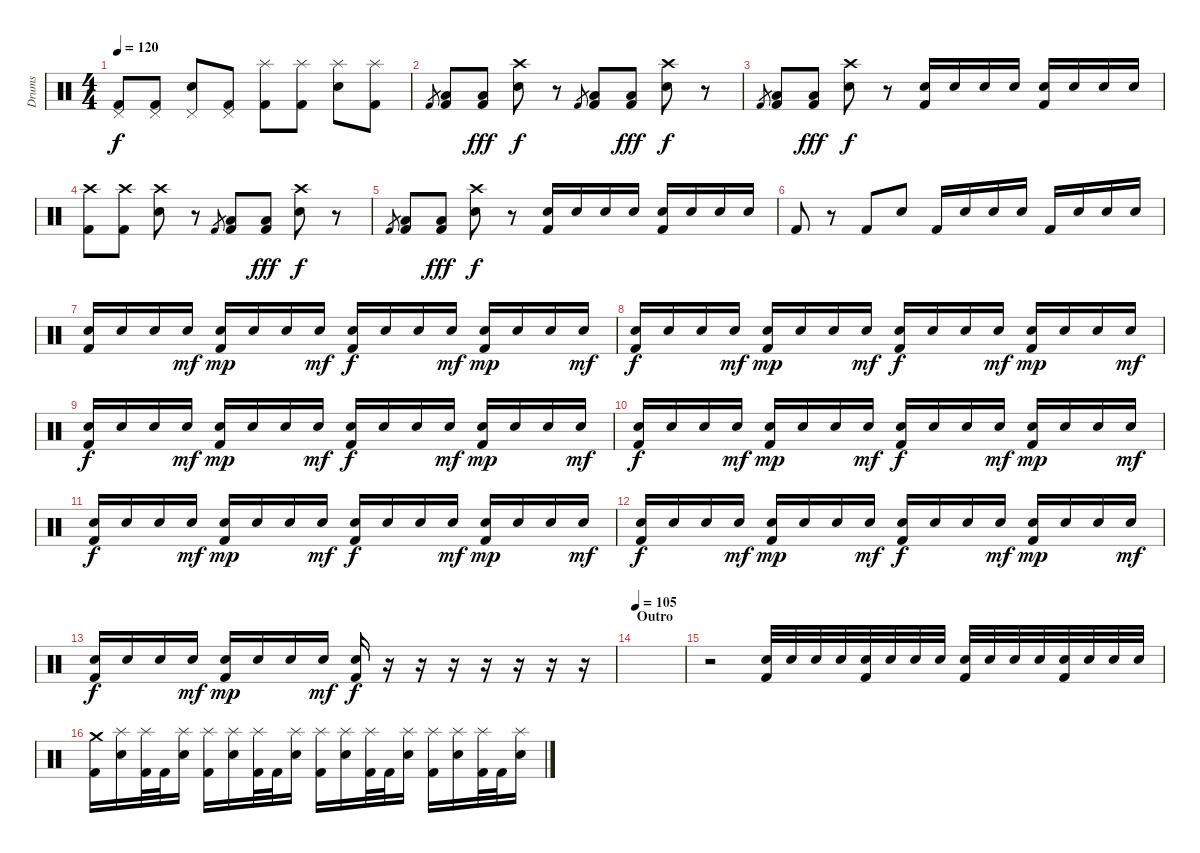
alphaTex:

\track ("Drums" "Drums") {instrument percussion}
\staff {score}
\articulation defaults
\ts (4 4)
\tempo 120
\clef neutral
\ks c
("Pedal Hi-Hat (hit)" "Kick (hit) 2").8{dy f} ("Pedal Hi-Hat (hit)" "Kick (hit) 2").8 ("Pedal Hi-Hat (hit)" "Electric Snare (hit)").8 ("Pedal Hi-Hat (hit)" "Kick (hit) 2").8 ("Splash (hit)" "Kick (hit) 2").8 ("Splash (hit)" "Kick (hit) 2").8 ("Splash (hit)" "Electric Snare (hit)").8 ("Splash (hit)" "Kick (hit) 2").8 |
"Kick (hit) 2".8{gr} ("Low Floor Tom (hit)" "Kick (hit) 2").8 ("Low Floor Tom (hit)" "Kick (hit) 2").8{dy fff} ("Crash high (hit)" "Electric Snare (hit)").8{dy f} r.8 "Kick (hit) 2".8{gr} ("Low Floor Tom (hit)" "Kick (hit) 2").8 ("Low Floor Tom (hit)" "Kick (hit) 2").8{dy fff} ("Crash high (hit)" "Electric Snare (hit)").8{dy f} r.8 |
"Kick (hit) 2".8{gr} ("Low Floor Tom (hit)" "Kick (hit) 2").8 ("Low Floor Tom (hit)" "Kick (hit) 2").8{dy fff} ("Crash high (hit)" "Electric Snare (hit)").8{dy f} r.8 ("Electric Snare (hit)" "Kick (hit) 2").16 "Electric Snare (hit)".16 "Electric Snare (hit)".16 "Electric Snare (hit)".16 ("Electric Snare (hit)" "Kick (hit) 2").16 "Electric Snare (hit)".16 "Electric Snare (hit)".16 "Electric Snare (hit)".16 |
("Crash high (hit)" "Kick (hit) 2").8 ("Crash high (hit)" "Kick (hit) 2").8 ("Crash high (hit)" "Electric Snare (hit)").8 r.8 "Kick (hit) 2".8{gr} ("Low Floor Tom (hit)" "Kick (hit) 2").8 ("Low Floor Tom (hit)" "Kick (hit) 2").8{dy fff} ("Crash high (hit)" "Electric Snare (hit)").8{dy f} r.8 |
"Kick (hit) 2".8{gr} ("Low Floor Tom (hit)" "Kick (hit) 2").8 ("Low Floor Tom (hit)" "Kick (hit) 2").8{dy fff} ("Crash high (hit)" "Electric Snare (hit)").8{dy f} r.8 ("Electric Snare (hit)" "Kick (hit) 2").16 "Electric Snare (hit)".16 "Electric Snare (hit)".16 "Electric Snare (hit)".16 ("Electric Snare (hit)" "Kick (hit) 2").16 "Electric Snare (hit)".16 "Electric Snare (hit)".16 "Electric Snare (hit)".16 |
"Kick (hit) 2".8 r.8 "Kick (hit) 2".8 "Electric Snare (hit)".8 "Kick (hit) 2".16 "Electric Snare (hit)".16 "Electric Snare (hit)".16 "Electric Snare (hit)".16 "Kick (hit) 2".16 "Electric Snare (hit)".16 "Electric Snare (hit)".16 "Electric Snare (hit)".16 |
("Electric Snare (hit)" "Kick (hit) 2").16 "Electric Snare (hit)".16 "Electric Snare (hit)".16 "Electric Snare (hit)".16{dy mf} ("Electric Snare (hit)" "Kick (hit) 2").16{dy mp} "Electric Snare (hit)".16 "Electric Snare (hit)".16 "Electric Snare (hit)".16{dy mf} ("Electric Snare (hit)" "Kick (hit) 2").16{dy f} "Electric Snare (hit)".16 "Electric Snare (hit)".16 "Electric Snare (hit)".16{dy mf} ("Electric Snare (hit)" "Kick (hit) 2").16{dy mp} "Electric Snare (hit)".16 "Electric Snare (hit)".16 "Electric Snare (hit)".16{dy mf} |
("Electric Snare (hit)" "Kick (hit) 2").16{dy f} "Electric Snare (hit)".16 "Electric Snare (hit)".16 "Electric Snare (hit)".16{dy mf} ("Electric Snare (hit)" "Kick (hit) 2").16{dy mp} "Electric Snare (hit)".16 "Electric Snare (hit)".16 "Electric Snare (hit)".16{dy mf} ("Electric Snare (hit)" "Kick (hit) 2").16{dy f} "Electric Snare (hit)".16 "Electric Snare (hit)".16 "Electric Snare (hit)".16{dy mf} ("Electric Snare (hit)" "Kick (hit) 2").16{dy mp} "Electric Snare (hit)".16 "Electric Snare (hit)".16 "Electric Snare (hit)".16{dy mf} |
("Electric Snare (hit)" "Kick (hit) 2").16{dy f} "Electric Snare (hit)".16 "Electric Snare (hit)".16 "Electric Snare (hit)".16{dy mf} ("Electric Snare (hit)" "Kick (hit) 2").16{dy mp} "Electric Snare (hit)".16 "Electric Snare (hit)".16 "Electric Snare (hit)".16{dy mf} ("Electric Snare (hit)" "Kick (hit) 2").16{dy f} "Electric Snare (hit)".16 "Electric Snare (hit)".16 "Electric Snare (hit)".16{dy mf} ("Electric Snare (hit)" "Kick (hit) 2").16{dy mp} "Electric Snare (hit)".16 "Electric Snare (hit)".16 "Electric Snare (hit)".16{dy mf} |
("Electric Snare (hit)" "Kick (hit) 2").16{dy f} "Electric Snare (hit)".16 "Electric Snare (hit)".16 "Electric Snare (hit)".16{dy mf} ("Electric Snare (hit)" "Kick (hit) 2").16{dy mp} "Electric Snare (hit)".16 "Electric Snare (hit)".16 "Electric Snare (hit)".16{dy mf} ("Electric Snare (hit)" "Kick (hit) 2").16{dy f} "Electric Snare (hit)".16 "Electric Snare (hit)".16 "Electric Snare (hit)".16{dy mf} ("Electric Snare (hit)" "Kick (hit) 2").16{dy mp} "Electric Snare (hit)".16 "Electric Snare (hit)".16 "Electric Snare (hit)".16{dy mf} |
("Electric Snare (hit)" "Kick (hit) 2").16{dy f} "Electric Snare (hit)".16 "Electric Snare (hit)".16 "Electric Snare (hit)".16{dy mf} ("Electric Snare (hit)" "Kick (hit) 2").16{dy mp} "Electric Snare (hit)".16 "Electric Snare (hit)".16 "Electric Snare (hit)".16{dy mf} ("Electric Snare (hit)" "Kick (hit) 2").16{dy f} "Electric Snare (hit)".16 "Electric Snare (hit)".16 "Electric Snare (hit)".16{dy mf} ("Electric Snare (hit)" "Kick (hit) 2").16{dy mp} "Electric Snare (hit)".16 "Electric Snare (hit)".16 "Electric Snare (hit)".16{dy mf} |
("Electric Snare (hit)" "Kick (hit) 2").16{dy f} "Electric Snare (hit)".16 "Electric Snare (hit)".16 "Electric Snare (hit)".16{dy mf} ("Electric Snare (hit)" "Kick (hit) 2").16{dy mp} "Electric Snare (hit)".16 "Electric Snare (hit)".16 "Electric Snare (hit)".16{dy mf} ("Electric Snare (hit)" "Kick (hit) 2").16{dy f} "Electric Snare (hit)".16 "Electric Snare (hit)".16 "Electric Snare (hit)".16{dy mf} ("Electric Snare (hit)" "Kick (hit) 2").16{dy mp} "Electric Snare (hit)".16 "Electric Snare (hit)".16 "Electric Snare (hit)".16{dy mf} |
("Electric Snare (hit)" "Kick (hit) 2").16{dy f} "Electric Snare (hit)".16 "Electric Snare (hit)".16 "Electric Snare (hit)".16{dy mf} ("Electric Snare (hit)" "Kick (hit) 2").16{dy mp} "Electric Snare (hit)".16 "Electric Snare (hit)".16 "Electric Snare (hit)".16{dy mf} ("Electric Snare (hit)" "Kick (hit) 2").16{dy f} r.16 r.16 r.16 r.16 r.16 r.16 r.16 |
\section ("" "Outro")
\tempo 105
|
r.2 ("Electric Snare (hit)" "Kick (hit) 2").32 "Electric Snare (hit)".32 "Electric Snare (hit)".32 "Electric Snare (hit)".32 ("Electric Snare (hit)" "Kick (hit) 2").32 "Electric Snare (hit)".32 "Electric Snare (hit)".32 "Electric Snare (hit)".32 ("Electric Snare (hit)" "Kick (hit) 2").32 "Electric Snare (hit)".32 "Electric Snare (hit)".32 "Electric Snare (hit)".32 ("Electric Snare (hit)" "Kick (hit) 2").32 "Electric Snare (hit)".32 "Electric Snare (hit)".32 "Electric Snare (hit)".32 |
("Crash medium (hit)" "Kick (hit) 2").16 ("Splash (hit)" "Electric Snare (hit)").16 ("Splash (hit)" "Kick (hit) 2").32 "Kick (hit) 2".32 ("Splash (hit)" "Electric Snare (hit)").16 ("Splash (hit)" "Kick (hit) 2").16 ("Splash (hit)" "Electric Snare (hit)").16 ("Splash (hit)" "Kick (hit) 2").32 "Kick (hit) 2".32 ("Splash (hit)" "Electric Snare (hit)").16 ("Splash (hit)" "Kick (hit) 2").16 ("Splash (hit)" "Electric Snare (hit)").16 ("Splash (hit)" "Kick (hit) 2").32 "Kick (hit) 2".32 ("Splash (hit)" "Electric Snare (hit)").16 ("Splash (hit)" "Kick (hit) 2").16 ("Splash (hit)" "Electric Snare (hit)").16 ("Splash (hit)" "Kick (hit) 2").32 "Kick (hit) 2".32 ("Splash (hit)" "Electric Snare (hit)").16
